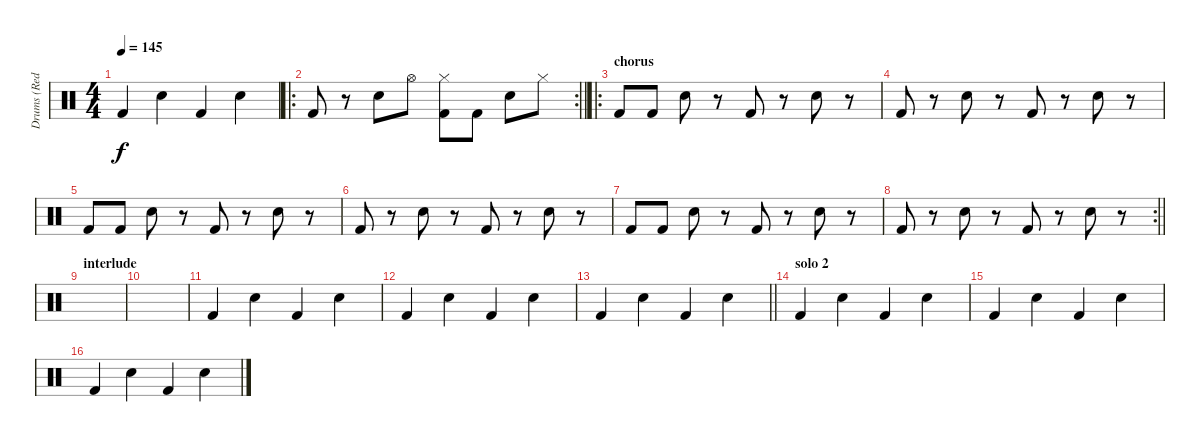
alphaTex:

\track ("Drums (Red)" "Drums (Red") {instrument percussion}
\staff {score}
\articulation defaults
\ts (4 4)
\tempo 145
\clef neutral
\ks c "Kick (hit) 2".4{dy f} "Electric Snare (hit)".4 "Kick (hit) 2".4 "Electric Snare (hit)".4
|
\ro
\rc 2
\barLineRight lightlight "Kick (hit) 2".8
r.8 "Electric Snare (hit)".8 "Hi-Hat (open)".8 ("Hi-Hat (closed)" "Kick (hit) 2").8 "Kick (hit) 2".8 "Electric Snare (hit)".8 "Hi-Hat (closed)".8 |
\ro
\section ("" "chorus")
"Kick (hit) 2".8 "Kick (hit) 2".8 "Electric Snare (hit)".8 r.8 "Kick (hit) 2".8 r.8 "Electric Snare (hit)".8 r.8 |
"Kick (hit) 2".8 r.8 "Electric Snare (hit)".8 r.8 "Kick (hit) 2".8 r.8 "Electric Snare (hit)".8 r.8 |
"Kick (hit) 2".8 "Kick (hit) 2".8 "Electric Snare (hit)".8 r.8 "Kick (hit) 2".8 r.8 "Electric Snare (hit)".8 r.8 |
"Kick (hit) 2".8 r.8 "Electric Snare (hit)".8 r.8 "Kick (hit) 2".8 r.8 "Electric Snare (hit)".8 r.8 |
"Kick (hit) 2".8 "Kick (hit) 2".8 "Electric Snare (hit)".8 r.8 "Kick (hit) 2".8 r.8 "Electric Snare (hit)".8 r.8 |
\rc 2
\barLineRight lightlight "Kick (hit) 2".8
r.8 "Electric Snare (hit)".8 r.8 "Kick (hit) 2".8 r.8 "Electric Snare (hit)".8 r.8 |
\section ("" "interlude")
|
|
"Kick (hit) 2".4 "Electric Snare (hit)".4 "Kick (hit) 2".4 "Electric Snare (hit)".4 |
"Kick (hit) 2".4 "Electric Snare (hit)".4 "Kick (hit) 2".4 "Electric Snare (hit)".4 |
\barLineRight lightlight "Kick (hit) 2".4 "Electric Snare (hit)".4 "Kick (hit) 2".4 "Electric Snare (hit)".4
|
\section ("" "solo 2")
"Kick (hit) 2".4 "Electric Snare (hit)".4 "Kick (hit) 2".4 "Electric Snare (hit)".4 |
"Kick (hit) 2".4 "Electric Snare (hit)".4 "Kick (hit) 2".4 "Electric Snare (hit)".4 |
"Kick (hit) 2".4 "Electric Snare (hit)".4 "Kick (hit) 2".4 "Electric Snare (hit)".4
